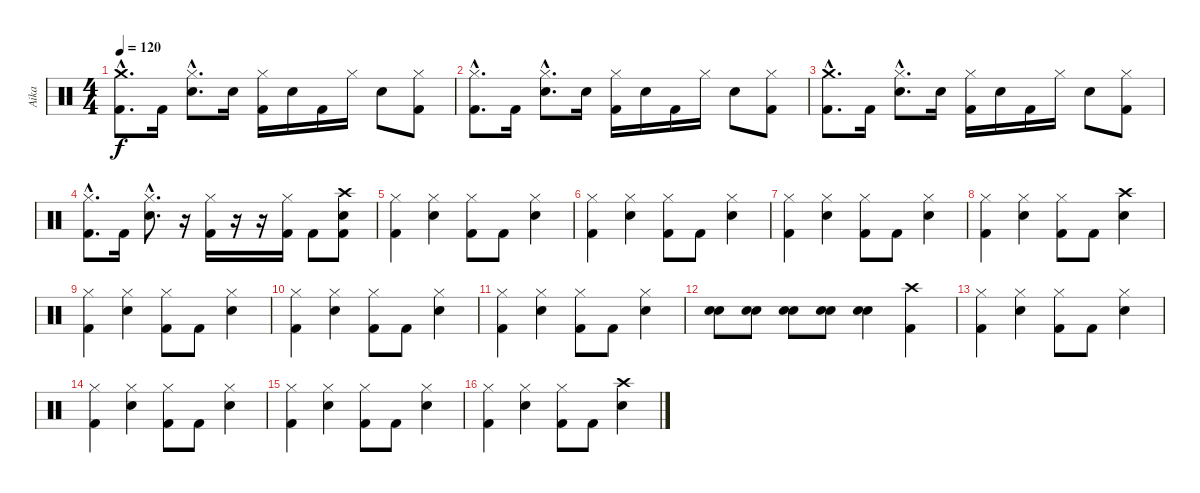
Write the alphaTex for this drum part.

\track ("Aika" "Aika") {instrument percussion}
\staff {score}
\articulation defaults
\ts (4 4)
\tempo 120
\clef neutral
\ks c
("Crash medium (hit)"{hac} "Kick (hit) 2"{hac}).8{d dy f} "Kick (hit) 2".16 ("Hi-Hat (closed)"{hac} "Snare (hit) 2"{hac}).8{d} "Snare (hit) 2".16 ("Hi-Hat (closed)" "Kick (hit) 2").16 "Snare (hit) 2".16 "Kick (hit) 2".16 "Hi-Hat (closed)".16 "Snare (hit) 2".8 ("Hi-Hat (closed)" "Kick (hit) 2").8 |
("Hi-Hat (closed)"{hac} "Kick (hit) 2"{hac}).8{d} "Kick (hit) 2".16 ("Hi-Hat (closed)"{hac} "Snare (hit) 2"{hac}).8{d} "Snare (hit) 2".16 ("Hi-Hat (closed)" "Kick (hit) 2").16 "Snare (hit) 2".16 "Kick (hit) 2".16 "Hi-Hat (closed)".16 "Snare (hit) 2".8 ("Hi-Hat (closed)" "Kick (hit) 2").8 |
("Crash medium (hit)"{hac} "Kick (hit) 2"{hac}).8{d} "Kick (hit) 2".16 ("Hi-Hat (closed)"{hac} "Snare (hit) 2"{hac}).8{d} "Snare (hit) 2".16 ("Hi-Hat (closed)" "Kick (hit) 2").16 "Snare (hit) 2".16 "Kick (hit) 2".16 "Hi-Hat (closed)".16 "Snare (hit) 2".8 ("Hi-Hat (closed)" "Kick (hit) 2").8 |
("Hi-Hat (closed)"{hac} "Kick (hit) 2"{hac}).8{d} "Kick (hit) 2".16 ("Hi-Hat (closed)"{hac} "Snare (hit) 2"{hac}).8{d} r.16 ("Hi-Hat (closed)" "Kick (hit) 2").16 r.16 r.16 ("Hi-Hat (closed)" "Kick (hit) 2").16 "Kick (hit) 2".8 ("Crash high (hit)" "Snare (hit) 2" "Kick (hit) 2").8 |
("Hi-Hat (closed)" "Kick (hit) 2").4 ("Hi-Hat (closed)" "Snare (hit) 2").4 ("Hi-Hat (closed)" "Kick (hit) 2").8 "Kick (hit) 2".8 ("Hi-Hat (closed)" "Snare (hit) 2").4 |
("Hi-Hat (closed)" "Kick (hit) 2").4 ("Hi-Hat (closed)" "Snare (hit) 2").4 ("Hi-Hat (closed)" "Kick (hit) 2").8 "Kick (hit) 2".8 ("Hi-Hat (closed)" "Snare (hit) 2").4 |
("Hi-Hat (closed)" "Kick (hit) 2").4 ("Hi-Hat (closed)" "Snare (hit) 2").4 ("Hi-Hat (closed)" "Kick (hit) 2").8 "Kick (hit) 2".8 ("Hi-Hat (closed)" "Snare (hit) 2").4 |
("Hi-Hat (closed)" "Kick (hit) 2").4 ("Hi-Hat (closed)" "Snare (hit) 2").4 ("Hi-Hat (closed)" "Kick (hit) 2").8 "Kick (hit) 2".8 ("Crash high (hit)" "Snare (hit) 2").4 |
("Hi-Hat (closed)" "Kick (hit) 2").4 ("Hi-Hat (closed)" "Snare (hit) 2").4 ("Hi-Hat (closed)" "Kick (hit) 2").8 "Kick (hit) 2".8 ("Hi-Hat (closed)" "Snare (hit) 2").4 |
("Hi-Hat (closed)" "Kick (hit) 2").4 ("Hi-Hat (closed)" "Snare (hit) 2").4 ("Hi-Hat (closed)" "Kick (hit) 2").8 "Kick (hit) 2".8 ("Hi-Hat (closed)" "Snare (hit) 2").4 |
("Hi-Hat (closed)" "Kick (hit) 2").4 ("Hi-Hat (closed)" "Snare (hit) 2").4 ("Hi-Hat (closed)" "Kick (hit) 2").8 "Kick (hit) 2".8 ("Hi-Hat (closed)" "Snare (hit) 2").4 |
("Snare (hit) 2" "Snare (hit) 2").8 ("Snare (hit) 2" "Snare (hit) 2").8 ("Snare (hit) 2" "Snare (hit) 2").8 ("Snare (hit) 2" "Snare (hit) 2").8 ("Snare (hit) 2" "Snare (hit) 2").4 ("Crash high (hit)" "Kick (hit) 2").4 |
("Hi-Hat (closed)" "Kick (hit) 2").4 ("Hi-Hat (closed)" "Snare (hit) 2").4 ("Hi-Hat (closed)" "Kick (hit) 2").8 "Kick (hit) 2".8 ("Hi-Hat (closed)" "Snare (hit) 2").4 |
("Hi-Hat (closed)" "Kick (hit) 2").4 ("Hi-Hat (closed)" "Snare (hit) 2").4 ("Hi-Hat (closed)" "Kick (hit) 2").8 "Kick (hit) 2".8 ("Hi-Hat (closed)" "Snare (hit) 2").4 |
("Hi-Hat (closed)" "Kick (hit) 2").4 ("Hi-Hat (closed)" "Snare (hit) 2").4 ("Hi-Hat (closed)" "Kick (hit) 2").8 "Kick (hit) 2".8 ("Hi-Hat (closed)" "Snare (hit) 2").4 |
("Hi-Hat (closed)" "Kick (hit) 2").4 ("Hi-Hat (closed)" "Snare (hit) 2").4 ("Hi-Hat (closed)" "Kick (hit) 2").8 "Kick (hit) 2".8 ("Crash high (hit)" "Snare (hit) 2").4
